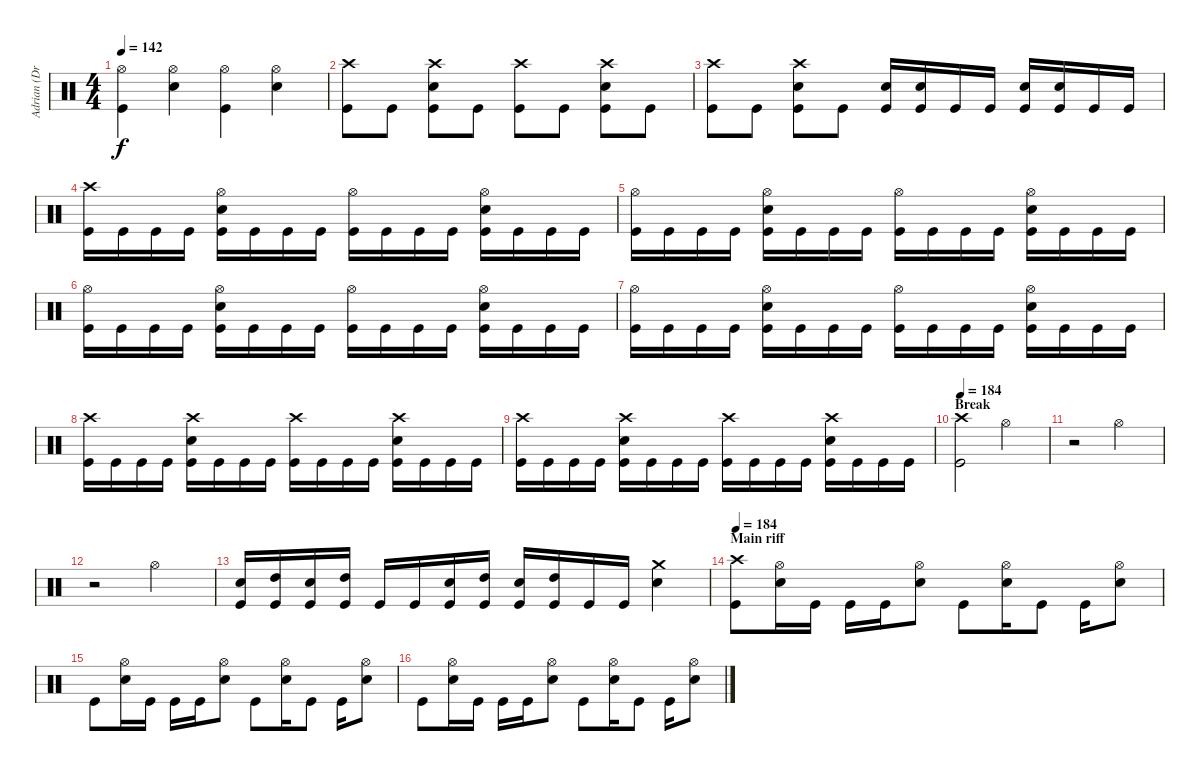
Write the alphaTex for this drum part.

\track ("Adrian (Drums)" "Adrian (Dr") {instrument percussion}
\staff {score}
\articulation defaults
\ts (4 4)
\tempo 142
\clef neutral
\ks c
("Hi-Hat (open)" "Kick (hit)").4{dy f} ("Hi-Hat (open)" "Electric Snare (hit)").4 ("Hi-Hat (open)" "Kick (hit)").4 ("Hi-Hat (open)" "Electric Snare (hit)").4 |
("Crash high (hit)" "Kick (hit)").8 "Kick (hit)".8 ("Crash high (hit)" "Electric Snare (hit)" "Kick (hit)").8 "Kick (hit)".8 ("Crash high (hit)" "Kick (hit)").8 "Kick (hit)".8 ("Crash high (hit)" "Electric Snare (hit)" "Kick (hit)").8 "Kick (hit)".8 |
("Crash high (hit)" "Kick (hit)").8 "Kick (hit)".8 ("Crash high (hit)" "Electric Snare (hit)" "Kick (hit)").8 "Kick (hit)".8 ("Electric Snare (hit)" "Kick (hit)").16 ("Electric Snare (hit)" "Kick (hit)").16 "Kick (hit)".16 "Kick (hit)".16 ("Electric Snare (hit)" "Kick (hit)").16 ("Electric Snare (hit)" "Kick (hit)").16 "Kick (hit)".16 "Kick (hit)".16 |
("Crash high (hit)" "Kick (hit)").16 "Kick (hit)".16 "Kick (hit)".16 "Kick (hit)".16 ("Hi-Hat (open)" "Electric Snare (hit)" "Kick (hit)").16 "Kick (hit)".16 "Kick (hit)".16 "Kick (hit)".16 ("Hi-Hat (open)" "Kick (hit)").16 "Kick (hit)".16 "Kick (hit)".16 "Kick (hit)".16 ("Hi-Hat (open)" "Electric Snare (hit)" "Kick (hit)").16 "Kick (hit)".16 "Kick (hit)".16 "Kick (hit)".16 |
("Hi-Hat (open)" "Kick (hit)").16 "Kick (hit)".16 "Kick (hit)".16 "Kick (hit)".16 ("Hi-Hat (open)" "Electric Snare (hit)" "Kick (hit)").16 "Kick (hit)".16 "Kick (hit)".16 "Kick (hit)".16 ("Hi-Hat (open)" "Kick (hit)").16 "Kick (hit)".16 "Kick (hit)".16 "Kick (hit)".16 ("Hi-Hat (open)" "Electric Snare (hit)" "Kick (hit)").16 "Kick (hit)".16 "Kick (hit)".16 "Kick (hit)".16 |
("Hi-Hat (open)" "Kick (hit)").16 "Kick (hit)".16 "Kick (hit)".16 "Kick (hit)".16 ("Hi-Hat (open)" "Electric Snare (hit)" "Kick (hit)").16 "Kick (hit)".16 "Kick (hit)".16 "Kick (hit)".16 ("Hi-Hat (open)" "Kick (hit)").16 "Kick (hit)".16 "Kick (hit)".16 "Kick (hit)".16 ("Hi-Hat (open)" "Electric Snare (hit)" "Kick (hit)").16 "Kick (hit)".16 "Kick (hit)".16 "Kick (hit)".16 |
("Hi-Hat (open)" "Kick (hit)").16 "Kick (hit)".16 "Kick (hit)".16 "Kick (hit)".16 ("Hi-Hat (open)" "Electric Snare (hit)" "Kick (hit)").16 "Kick (hit)".16 "Kick (hit)".16 "Kick (hit)".16 ("Hi-Hat (open)" "Kick (hit)").16 "Kick (hit)".16 "Kick (hit)".16 "Kick (hit)".16 ("Hi-Hat (open)" "Electric Snare (hit)" "Kick (hit)").16 "Kick (hit)".16 "Kick (hit)".16 "Kick (hit)".16 |
("Crash high (hit)" "Kick (hit)").16 "Kick (hit)".16 "Kick (hit)".16 "Kick (hit)".16 ("Crash high (hit)" "Electric Snare (hit)" "Kick (hit)").16 "Kick (hit)".16 "Kick (hit)".16 "Kick (hit)".16 ("Crash high (hit)" "Kick (hit)").16 "Kick (hit)".16 "Kick (hit)".16 "Kick (hit)".16 ("Crash high (hit)" "Electric Snare (hit)" "Kick (hit)").16 "Kick (hit)".16 "Kick (hit)".16 "Kick (hit)".16 |
("Crash high (hit)" "Kick (hit)").16 "Kick (hit)".16 "Kick (hit)".16 "Kick (hit)".16 ("Crash high (hit)" "Electric Snare (hit)" "Kick (hit)").16 "Kick (hit)".16 "Kick (hit)".16 "Kick (hit)".16 ("Crash high (hit)" "Kick (hit)").16 "Kick (hit)".16 "Kick (hit)".16 "Kick (hit)".16 ("Crash high (hit)" "Electric Snare (hit)" "Kick (hit)").16 "Kick (hit)".16 "Kick (hit)".16 "Kick (hit)".16 |
\section ("" "Break")
\tempo 184
("Crash high (hit)" "Kick (hit)").2 "Hi-Hat (open)".2 |
r.2 "Hi-Hat (open)".2 |
r.2 "Hi-Hat (open)".2 |
("Electric Snare (hit)" "Kick (hit)").16 ("High Tom (hit)" "Kick (hit)").16 ("Electric Snare (hit)" "Kick (hit)").16 ("High Tom (hit)" "Kick (hit)").16 "Kick (hit)".16 "Kick (hit)".16 ("Electric Snare (hit)" "Kick (hit)").16 ("High Tom (hit)" "Kick (hit)").16 ("Electric Snare (hit)" "Kick (hit)").16 ("High Tom (hit)" "Kick (hit)").16 "Kick (hit)".16 "Kick (hit)".16 ("Crash medium (hit)" "Electric Snare (hit)").4 |
\section ("" "Main riff")
\tempo 184
("Crash high (hit)" "Kick (hit)").8 ("Hi-Hat (open)" "Electric Snare (hit)").16 "Kick (hit)".16 "Kick (hit)".16 "Kick (hit)".16 ("Hi-Hat (open)" "Electric Snare (hit)").8 "Kick (hit)".8 ("Hi-Hat (open)" "Electric Snare (hit)").16 "Kick (hit)".8 "Kick (hit)".16 ("Hi-Hat (open)" "Electric Snare (hit)").8 |
"Kick (hit)".8 ("Hi-Hat (open)" "Electric Snare (hit)").16 "Kick (hit)".16 "Kick (hit)".16 "Kick (hit)".16 ("Hi-Hat (open)" "Electric Snare (hit)").8 "Kick (hit)".8 ("Hi-Hat (open)" "Electric Snare (hit)").16 "Kick (hit)".8 "Kick (hit)".16 ("Hi-Hat (open)" "Electric Snare (hit)").8 |
"Kick (hit)".8 ("Hi-Hat (open)" "Electric Snare (hit)").16 "Kick (hit)".16 "Kick (hit)".16 "Kick (hit)".16 ("Hi-Hat (open)" "Electric Snare (hit)").8 "Kick (hit)".8 ("Hi-Hat (open)" "Electric Snare (hit)").16 "Kick (hit)".8 "Kick (hit)".16 ("Hi-Hat (open)" "Electric Snare (hit)").8
